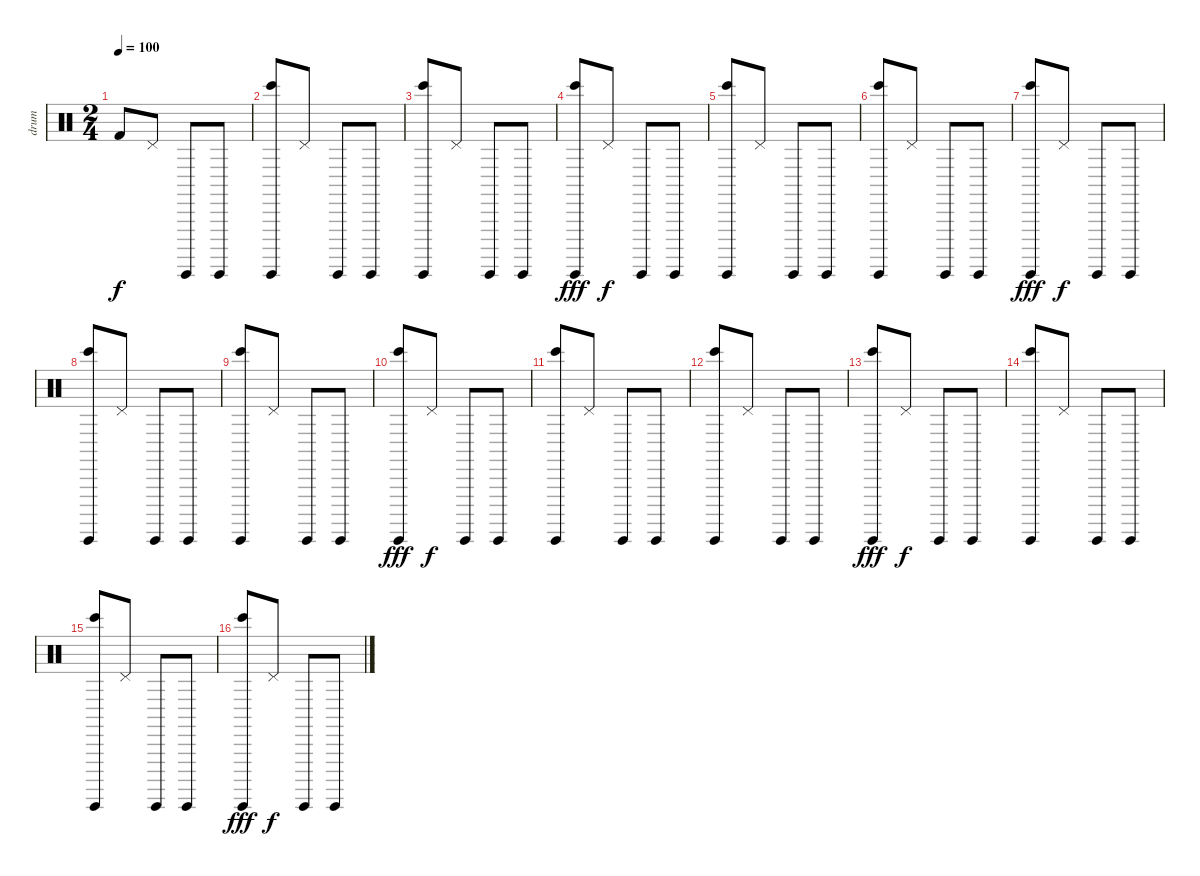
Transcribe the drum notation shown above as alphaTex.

\track ("drum" "drum") {instrument percussion}
\staff {score}
\articulation defaults
\ts (2 4)
\tempo 100
\clef neutral
\ks c "Kick (hit) 2".8{dy f} "Pedal Hi-Hat (hit)".8 "Guiro (hit)".8 "Guiro (hit)".8
|
("Guiro (hit)" "Bongo High (hit)").8 "Pedal Hi-Hat (hit)".8 "Guiro (hit)".8 "Guiro (hit)".8 |
("Guiro (hit)" "Bongo High (hit)").8 "Pedal Hi-Hat (hit)".8 "Guiro (hit)".8 "Guiro (hit)".8 |
("Guiro (hit)" "Bongo High (hit)").8{dy fff} "Pedal Hi-Hat (hit)".8{dy f} "Guiro (hit)".8 "Guiro (hit)".8 |
("Guiro (hit)" "Bongo High (hit)").8 "Pedal Hi-Hat (hit)".8 "Guiro (hit)".8 "Guiro (hit)".8 |
("Guiro (hit)" "Bongo High (hit)").8 "Pedal Hi-Hat (hit)".8 "Guiro (hit)".8 "Guiro (hit)".8 |
("Guiro (hit)" "Bongo High (hit)").8{dy fff} "Pedal Hi-Hat (hit)".8{dy f} "Guiro (hit)".8 "Guiro (hit)".8 |
("Guiro (hit)" "Bongo High (hit)").8 "Pedal Hi-Hat (hit)".8 "Guiro (hit)".8 "Guiro (hit)".8 |
("Guiro (hit)" "Bongo High (hit)").8 "Pedal Hi-Hat (hit)".8 "Guiro (hit)".8 "Guiro (hit)".8 |
("Guiro (hit)" "Bongo High (hit)").8{dy fff} "Pedal Hi-Hat (hit)".8{dy f} "Guiro (hit)".8 "Guiro (hit)".8 |
("Guiro (hit)" "Bongo High (hit)").8 "Pedal Hi-Hat (hit)".8 "Guiro (hit)".8 "Guiro (hit)".8 |
("Guiro (hit)" "Bongo High (hit)").8 "Pedal Hi-Hat (hit)".8 "Guiro (hit)".8 "Guiro (hit)".8 |
("Guiro (hit)" "Bongo High (hit)").8{dy fff} "Pedal Hi-Hat (hit)".8{dy f} "Guiro (hit)".8 "Guiro (hit)".8 |
("Guiro (hit)" "Bongo High (hit)").8 "Pedal Hi-Hat (hit)".8 "Guiro (hit)".8 "Guiro (hit)".8 |
("Guiro (hit)" "Bongo High (hit)").8 "Pedal Hi-Hat (hit)".8 "Guiro (hit)".8 "Guiro (hit)".8 |
("Guiro (hit)" "Bongo High (hit)").8{dy fff} "Pedal Hi-Hat (hit)".8{dy f} "Guiro (hit)".8 "Guiro (hit)".8
